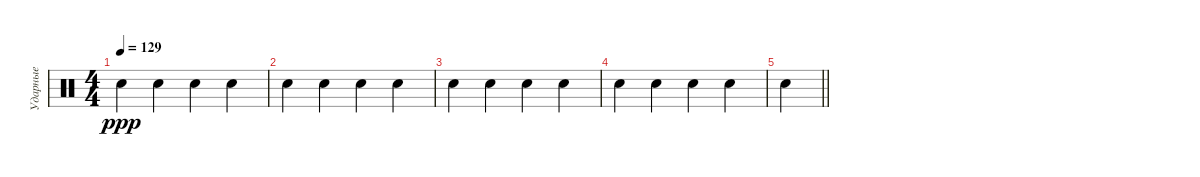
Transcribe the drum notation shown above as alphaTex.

\track ("Ударные" "Ударные") {instrument percussion}
\staff {score}
\articulation defaults
\ts (4 4)
\tempo 129
\clef neutral
\ks c "Hand Clap (hit)".4{dy ppp} "Hand Clap (hit)".4 "Hand Clap (hit)".4 "Hand Clap (hit)".4
|
"Hand Clap (hit)".4 "Hand Clap (hit)".4 "Hand Clap (hit)".4 "Hand Clap (hit)".4 |
"Hand Clap (hit)".4 "Hand Clap (hit)".4 "Hand Clap (hit)".4 "Hand Clap (hit)".4 |
"Hand Clap (hit)".4 "Hand Clap (hit)".4 "Hand Clap (hit)".4 "Hand Clap (hit)".4 |
\barLineRight lightlight "Hand Clap (hit)".4
